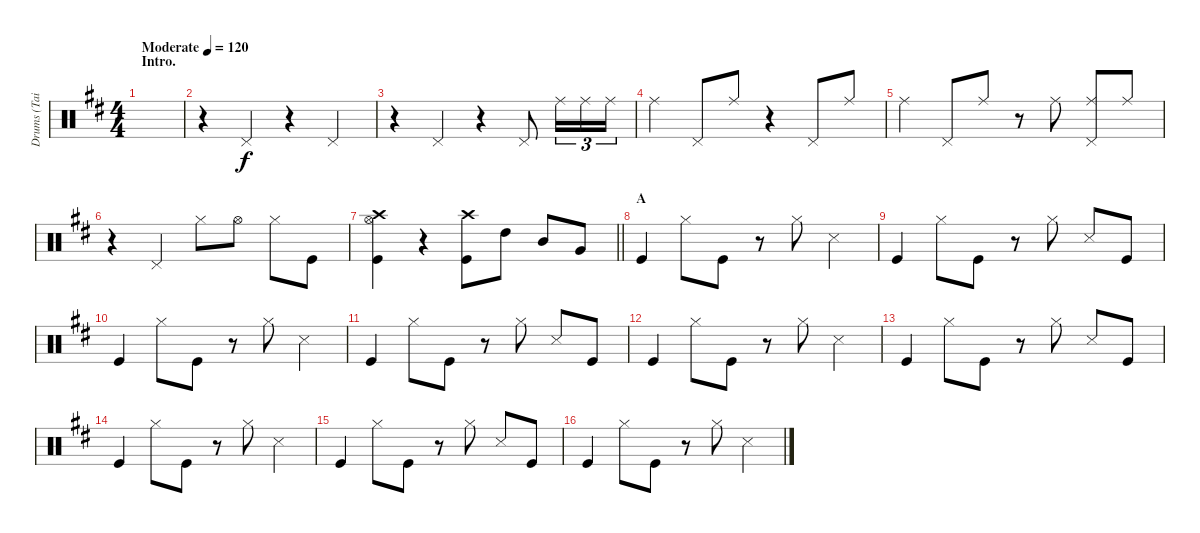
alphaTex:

\track ("Drums (Tainaka Ritsu)" "Drums (Tai") {instrument percussion}
\staff {score}
\articulation defaults
\ts (4 4)
\section ("" "Intro.")
\tempo (120 "Moderate")
\clef neutral
\ks d
|
r.4 "Pedal Hi-Hat (hit)".4 r.4 "Pedal Hi-Hat (hit)".4 |
r.4 "Pedal Hi-Hat (hit)".4 r.4 "Pedal Hi-Hat (hit)".8 "Ride (middle)".16{tu (3 2)} "Ride (middle)".16{tu (3 2)} "Ride (middle)".16{tu (3 2)} |
"Ride (middle)".4 "Pedal Hi-Hat (hit)".8 "Ride (middle)".8 r.4 "Pedal Hi-Hat (hit)".8 "Ride (middle)".8 |
"Ride (middle)".4 "Pedal Hi-Hat (hit)".8 "Ride (middle)".8 r.8 "Ride (middle)".8 ("Ride (middle)" "Pedal Hi-Hat (hit)").8 "Ride (middle)".8 |
r.4 "Pedal Hi-Hat (hit)".4 "Hi-Hat (closed)".8 "Hi-Hat (open)".8 "Hi-Hat (closed)".8 "Kick (hit)".8 |
\barLineRight lightlight
("Crash high (hit)" "Hi-Hat (open)" "Kick (hit)").4 r.4 ("Crash high (hit)" "Kick (hit)").8 "High Tom (hit)".8 "Mid Tom (hit)".8 "Very Low Tom (hit)".8 |
\section ("" "A")
"Kick (hit)".4 "Hi-Hat (closed)".8 "Kick (hit)".8 r.8 "Hi-Hat (closed)".8 "Snare (side stick) 3".4 |
"Kick (hit)".4 "Hi-Hat (closed)".8 "Kick (hit)".8 r.8 "Hi-Hat (closed)".8 "Snare (side stick) 3".8 "Kick (hit)".8 |
"Kick (hit)".4 "Hi-Hat (closed)".8 "Kick (hit)".8 r.8 "Hi-Hat (closed)".8 "Snare (side stick) 3".4 |
"Kick (hit)".4 "Hi-Hat (closed)".8 "Kick (hit)".8 r.8 "Hi-Hat (closed)".8 "Snare (side stick) 3".8 "Kick (hit)".8 |
"Kick (hit)".4 "Hi-Hat (closed)".8 "Kick (hit)".8 r.8 "Hi-Hat (closed)".8 "Snare (side stick) 3".4 |
"Kick (hit)".4 "Hi-Hat (closed)".8 "Kick (hit)".8 r.8 "Hi-Hat (closed)".8 "Snare (side stick) 3".8 "Kick (hit)".8 |
"Kick (hit)".4 "Hi-Hat (closed)".8 "Kick (hit)".8 r.8 "Hi-Hat (closed)".8 "Snare (side stick) 3".4 |
"Kick (hit)".4 "Hi-Hat (closed)".8 "Kick (hit)".8 r.8 "Hi-Hat (closed)".8 "Snare (side stick) 3".8 "Kick (hit)".8 |
"Kick (hit)".4 "Hi-Hat (closed)".8 "Kick (hit)".8 r.8 "Hi-Hat (closed)".8 "Snare (side stick) 3".4
